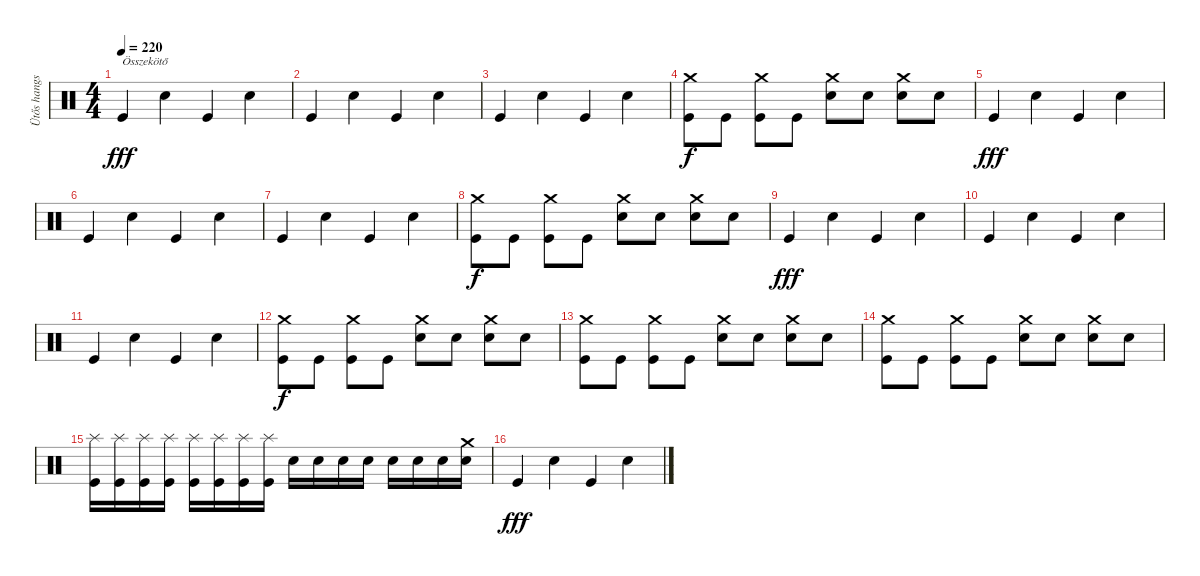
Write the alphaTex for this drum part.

\track ("Ütős hangszer" "Ütős hangs") {instrument percussion}
\staff {score}
\articulation defaults
\ts (4 4)
\tempo 220
\clef neutral
\ks c "Kick (hit)".4{txt "Összekötő" dy fff} "Snare (hit) 2".4 "Kick (hit)".4 "Snare (hit) 2".4
|
"Kick (hit)".4 "Snare (hit) 2".4 "Kick (hit)".4 "Snare (hit) 2".4 |
"Kick (hit)".4 "Snare (hit) 2".4 "Kick (hit)".4 "Snare (hit) 2".4 |
("Crash medium (hit)" "Kick (hit)").8{dy f} "Kick (hit)".8 ("Crash medium (hit)" "Kick (hit)").8 "Kick (hit)".8 ("Crash medium (hit)" "Snare (hit) 2").8 "Snare (hit) 2".8 ("Crash medium (hit)" "Snare (hit) 2").8 "Snare (hit) 2".8 |
"Kick (hit)".4{dy fff} "Snare (hit) 2".4 "Kick (hit)".4 "Snare (hit) 2".4 |
"Kick (hit)".4 "Snare (hit) 2".4 "Kick (hit)".4 "Snare (hit) 2".4 |
"Kick (hit)".4 "Snare (hit) 2".4 "Kick (hit)".4 "Snare (hit) 2".4 |
("Crash medium (hit)" "Kick (hit)").8{dy f} "Kick (hit)".8 ("Crash medium (hit)" "Kick (hit)").8 "Kick (hit)".8 ("Crash medium (hit)" "Snare (hit) 2").8 "Snare (hit) 2".8 ("Crash medium (hit)" "Snare (hit) 2").8 "Snare (hit) 2".8 |
"Kick (hit)".4{dy fff} "Snare (hit) 2".4 "Kick (hit)".4 "Snare (hit) 2".4 |
"Kick (hit)".4 "Snare (hit) 2".4 "Kick (hit)".4 "Snare (hit) 2".4 |
"Kick (hit)".4 "Snare (hit) 2".4 "Kick (hit)".4 "Snare (hit) 2".4 |
("Crash medium (hit)" "Kick (hit)").8{dy f} "Kick (hit)".8 ("Crash medium (hit)" "Kick (hit)").8 "Kick (hit)".8 ("Crash medium (hit)" "Snare (hit) 2").8 "Snare (hit) 2".8 ("Crash medium (hit)" "Snare (hit) 2").8 "Snare (hit) 2".8 |
("Crash medium (hit)" "Kick (hit)").8 "Kick (hit)".8 ("Crash medium (hit)" "Kick (hit)").8 "Kick (hit)".8 ("Crash medium (hit)" "Snare (hit) 2").8 "Snare (hit) 2".8 ("Crash medium (hit)" "Snare (hit) 2").8 "Snare (hit) 2".8 |
("Crash medium (hit)" "Kick (hit)").8 "Kick (hit)".8 ("Crash medium (hit)" "Kick (hit)").8 "Kick (hit)".8 ("Crash medium (hit)" "Snare (hit) 2").8 "Snare (hit) 2".8 ("Crash medium (hit)" "Snare (hit) 2").8 "Snare (hit) 2".8 |
("Splash (hit)" "Kick (hit)").16 ("Splash (hit)" "Kick (hit)").16 ("Splash (hit)" "Kick (hit)").16 ("Splash (hit)" "Kick (hit)").16 ("Splash (hit)" "Kick (hit)").16 ("Splash (hit)" "Kick (hit)").16 ("Splash (hit)" "Kick (hit)").16 ("Splash (hit)" "Kick (hit)").16 "Snare (hit) 2".16 "Snare (hit) 2".16 "Snare (hit) 2".16 "Snare (hit) 2".16 "Snare (hit) 2".16 "Snare (hit) 2".16 "Snare (hit) 2".16 ("Crash medium (hit)" "Snare (hit) 2").16 |
"Kick (hit)".4{dy fff} "Snare (hit) 2".4 "Kick (hit)".4 "Snare (hit) 2".4
